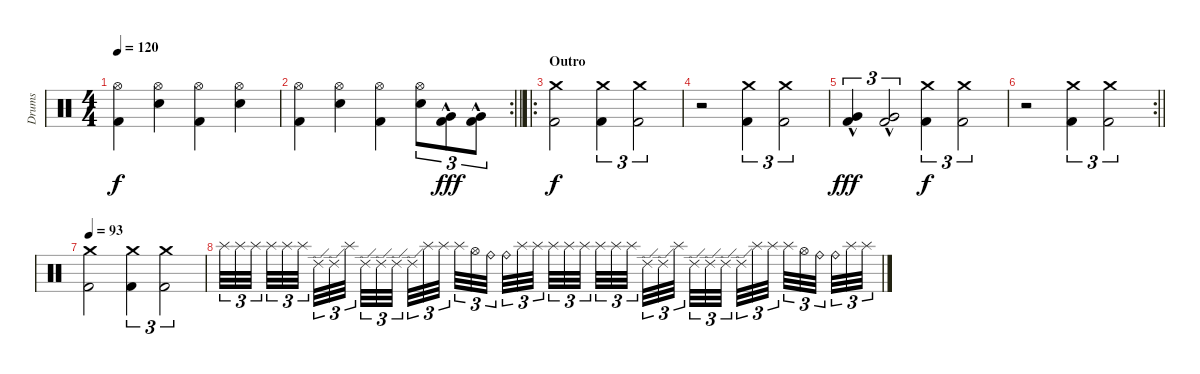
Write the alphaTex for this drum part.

\track ("Drums" "Drums") {instrument percussion}
\staff {score}
\articulation defaults
\ts (4 4)
\tempo 120
\clef neutral
\ks c
("Hi-Hat (open)" "Kick (hit) 2").4{dy f} ("Hi-Hat (open)" "Snare (hit) 2").4 ("Hi-Hat (open)" "Kick (hit) 2").4 ("Hi-Hat (open)" "Snare (hit) 2").4 |
\rc 2
\barLineRight lightlight
("Hi-Hat (open)" "Kick (hit) 2").4 ("Hi-Hat (open)" "Snare (hit) 2").4 ("Hi-Hat (open)" "Kick (hit) 2").4 ("Hi-Hat (open)" "Snare (hit) 2").8{tu (3 2)} ("Very Low Tom (hit)"{hac} "Kick (hit) 2").8{tu (3 2) dy fff} ("Very Low Tom (hit)"{hac} "Kick (hit) 2").8{tu (3 2)} |
\ro
\section ("" "Outro")
("Crash medium (hit)" "Kick (hit) 2").2{dy f} ("Crash medium (hit)" "Kick (hit) 2").4{tu (3 2)} ("Crash medium (hit)" "Kick (hit) 2").2{tu (3 2)} |
r.2 ("Crash medium (hit)" "Kick (hit) 2").4{tu (3 2)} ("Crash medium (hit)" "Kick (hit) 2").2{tu (3 2)} |
("Very Low Tom (hit)"{hac} "Kick (hit) 2").4{tu (3 2) dy fff} ("Very Low Tom (hit)"{hac} "Kick (hit) 2").2{tu (3 2)} ("Crash medium (hit)" "Kick (hit) 2").4{tu (3 2) dy f} ("Crash medium (hit)" "Kick (hit) 2").2{tu (3 2)} |
\rc 2
\barLineRight lightlight
r.2 ("Crash medium (hit)" "Kick (hit) 2").4{tu (3 2)} ("Crash medium (hit)" "Kick (hit) 2").2{tu (3 2)} |
\tempo 93
("Crash medium (hit)" "Kick (hit) 2").2 ("Crash medium (hit)" "Kick (hit) 2").4{tu (3 2)} ("Crash medium (hit)" "Kick (hit) 2").2{tu (3 2)} |
"Splash (hit)".32{tu (3 2)} "Splash (hit)".32{tu (3 2)} "Splash (hit)".32{tu (3 2) beam splitsecondary} "Splash (hit)".32{tu (3 2)} "Splash (hit)".32{tu (3 2)} "Splash (hit)".32{tu (3 2) beam splitsecondary} "Ride (edge) 2".32{tu (3 2)} "Ride (edge) 2".32{tu (3 2)} "Splash (hit)".32{tu (3 2) beam splitsecondary} "Ride (edge) 2".32{tu (3 2)} "Ride (edge) 2".32{tu (3 2)} "Ride (edge) 2".32{tu (3 2)} "Ride (edge) 2".32{tu (3 2)} "Splash (hit)".32{tu (3 2)} "Splash (hit)".32{tu (3 2) beam splitsecondary} "Splash (hit)".32{tu (3 2)} "Hi-Hat (open)".32{tu (3 2)} "Ride (bell)".32{tu (3 2) beam splitsecondary} "Ride (bell)".32{tu (3 2)} "Splash (hit)".32{tu (3 2)} "Splash (hit)".32{tu (3 2) beam splitsecondary} "Splash (hit)".32{tu (3 2)} "Splash (hit)".32{tu (3 2)} "Splash (hit)".32{tu (3 2)} "Splash (hit)".32{tu (3 2)} "Splash (hit)".32{tu (3 2)} "Splash (hit)".32{tu (3 2) beam splitsecondary} "Ride (edge) 2".32{tu (3 2)} "Ride (edge) 2".32{tu (3 2)} "Splash (hit)".32{tu (3 2) beam splitsecondary} "Ride (edge) 2".32{tu (3 2)} "Ride (edge) 2".32{tu (3 2)} "Ride (edge) 2".32{tu (3 2) beam splitsecondary} "Ride (edge) 2".32{tu (3 2)} "Splash (hit)".32{tu (3 2)} "Splash (hit)".32{tu (3 2)} "Splash (hit)".32{tu (3 2)} "Hi-Hat (open)".32{tu (3 2)} "Ride (bell)".32{tu (3 2) beam splitsecondary} "Ride (bell)".32{tu (3 2)} "Splash (hit)".32{tu (3 2)} "Splash (hit)".32{tu (3 2)}
